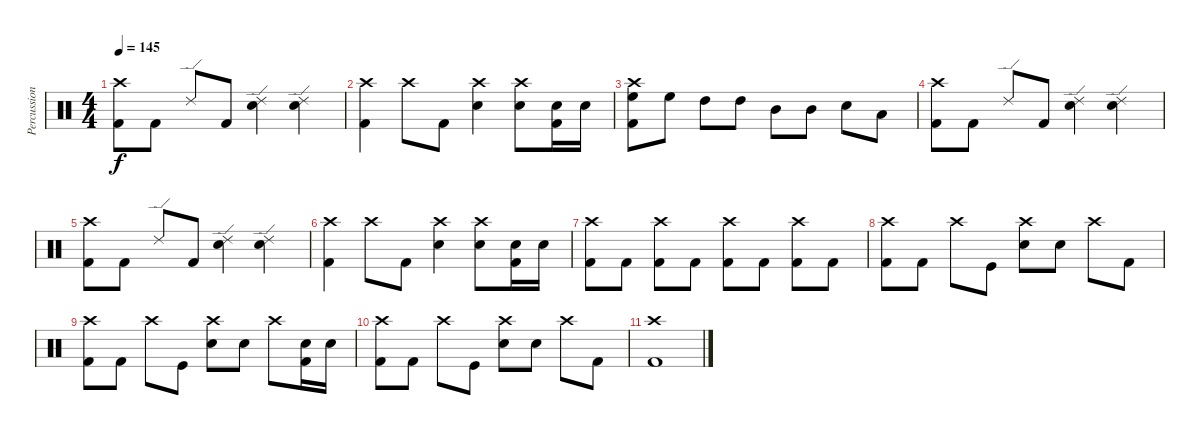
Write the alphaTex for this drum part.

\track ("Percussion" "Percussion") {instrument percussion}
\staff {score}
\articulation defaults
\ts (4 4)
\tempo 145
\clef neutral
\ks c
("Crash high (hit)" "Kick (hit) 2").8{dy f} "Kick (hit) 2".8 "Ride (edge) 2".8 "Kick (hit) 2".8 ("Ride (edge) 2" "Electric Snare (hit)").4 ("Ride (edge) 2" "Electric Snare (hit)").4 |
("Crash high (hit)" "Kick (hit) 2").4 "Crash high (hit)".8 "Kick (hit) 2".8 ("Crash high (hit)" "Electric Snare (hit)").4 ("Crash high (hit)" "Electric Snare (hit)").8 ("Kick (hit) 2" "Electric Snare (hit)").16 "Electric Snare (hit)".16 |
("Crash high (hit)" "Kick (hit) 2" "High Floor Tom (hit)").8 "High Floor Tom (hit)".8 "High Tom (hit)".8 "High Tom (hit)".8 "Mid Tom (hit)".8 "Mid Tom (hit)".8 "Electric Snare (hit)".8 "Low Tom (hit)".8 |
("Crash high (hit)" "Kick (hit) 2").8 "Kick (hit) 2".8 "Ride (edge) 2".8 "Kick (hit) 2".8 ("Ride (edge) 2" "Electric Snare (hit)").4 ("Ride (edge) 2" "Electric Snare (hit)").4 |
("Crash high (hit)" "Kick (hit) 2").8 "Kick (hit) 2".8 "Ride (edge) 2".8 "Kick (hit) 2".8 ("Ride (edge) 2" "Electric Snare (hit)").4 ("Ride (edge) 2" "Electric Snare (hit)").4 |
("Crash high (hit)" "Kick (hit) 2").4 "Crash high (hit)".8 "Kick (hit) 2".8 ("Crash high (hit)" "Electric Snare (hit)").4 ("Crash high (hit)" "Electric Snare (hit)").8 ("Kick (hit) 2" "Electric Snare (hit)").16 "Electric Snare (hit)".16 |
("Crash high (hit)" "Kick (hit) 2").8 "Kick (hit) 2".8 ("Crash high (hit)" "Kick (hit) 2").8 "Kick (hit) 2".8 ("Crash high (hit)" "Kick (hit) 2").8 "Kick (hit) 2".8 ("Crash high (hit)" "Kick (hit) 2").8 "Kick (hit) 2".8 |
("Kick (hit) 2" "Crash high (hit)").8 "Kick (hit) 2".8 "Crash high (hit)".8 "Kick (hit)".8 ("Crash high (hit)" "Electric Snare (hit)").8 "Electric Snare (hit)".8 "Crash high (hit)".8 "Kick (hit) 2".8 |
("Kick (hit) 2" "Crash high (hit)").8 "Kick (hit) 2".8 "Crash high (hit)".8 "Kick (hit)".8 ("Crash high (hit)" "Electric Snare (hit)").8 "Electric Snare (hit)".8 "Crash high (hit)".8 ("Kick (hit) 2" "Electric Snare (hit)").16 "Electric Snare (hit)".16 |
("Kick (hit) 2" "Crash high (hit)").8 "Kick (hit) 2".8 "Crash high (hit)".8 "Kick (hit)".8 ("Crash high (hit)" "Electric Snare (hit)").8 "Electric Snare (hit)".8 "Crash high (hit)".8 "Kick (hit) 2".8 |
("Crash high (hit)" "Kick (hit) 2").1
